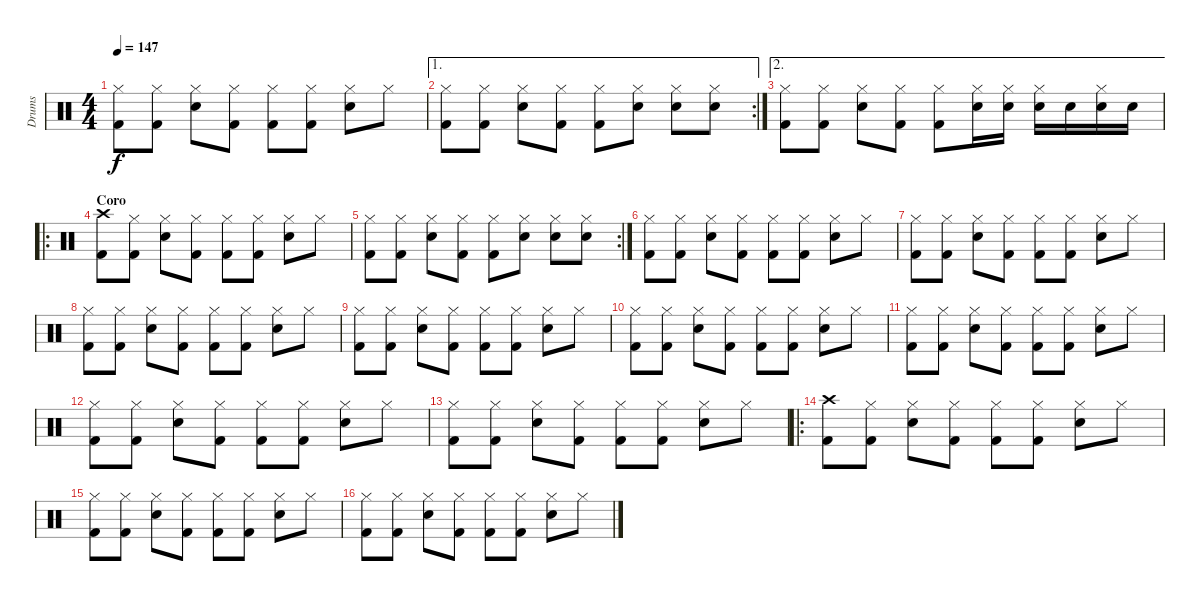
\track ("Drums" "Drums") {instrument percussion}
\staff {score}
\articulation defaults
\ts (4 4)
\tempo 147
\clef neutral
\ks c
("Hi-Hat (closed)" "Kick (hit) 2").8{dy f} ("Hi-Hat (closed)" "Kick (hit) 2").8 ("Hi-Hat (closed)" "Snare (hit) 2").8 ("Hi-Hat (closed)" "Kick (hit) 2").8 ("Hi-Hat (closed)" "Kick (hit) 2").8 ("Hi-Hat (closed)" "Kick (hit) 2").8 ("Hi-Hat (closed)" "Snare (hit) 2").8 "Hi-Hat (closed)".8 |
\ae 1
\rc 2
("Hi-Hat (closed)" "Kick (hit) 2").8 ("Hi-Hat (closed)" "Kick (hit) 2").8 ("Hi-Hat (closed)" "Snare (hit) 2").8 ("Hi-Hat (closed)" "Kick (hit) 2").8 ("Hi-Hat (closed)" "Kick (hit) 2").8 ("Hi-Hat (closed)" "Snare (hit) 2").8 ("Hi-Hat (closed)" "Snare (hit) 2").8 ("Hi-Hat (closed)" "Snare (hit) 2").8 |
\ae 2
("Hi-Hat (closed)" "Kick (hit) 2").8 ("Hi-Hat (closed)" "Kick (hit) 2").8 ("Hi-Hat (closed)" "Snare (hit) 2").8 ("Hi-Hat (closed)" "Kick (hit) 2").8 ("Hi-Hat (closed)" "Kick (hit) 2").8 ("Hi-Hat (closed)" "Snare (hit) 2").16 ("Hi-Hat (closed)" "Snare (hit) 2").16 ("Hi-Hat (closed)" "Snare (hit) 2").16 "Snare (hit) 2".16 ("Hi-Hat (closed)" "Snare (hit) 2").16 "Snare (hit) 2".16 |
\ro
\section ("" "Coro")
("Crash high (hit)" "Kick (hit) 2").8 ("Hi-Hat (closed)" "Kick (hit) 2").8 ("Hi-Hat (closed)" "Snare (hit) 2").8 ("Hi-Hat (closed)" "Kick (hit) 2").8 ("Hi-Hat (closed)" "Kick (hit) 2").8 ("Hi-Hat (closed)" "Kick (hit) 2").8 ("Hi-Hat (closed)" "Snare (hit) 2").8 "Hi-Hat (closed)".8 |
\rc 2
("Hi-Hat (closed)" "Kick (hit) 2").8 ("Hi-Hat (closed)" "Kick (hit) 2").8 ("Hi-Hat (closed)" "Snare (hit) 2").8 ("Hi-Hat (closed)" "Kick (hit) 2").8 ("Hi-Hat (closed)" "Kick (hit) 2").8 ("Hi-Hat (closed)" "Snare (hit) 2").8 ("Hi-Hat (closed)" "Snare (hit) 2").8 ("Hi-Hat (closed)" "Snare (hit) 2").8 |
("Hi-Hat (closed)" "Kick (hit) 2").8 ("Hi-Hat (closed)" "Kick (hit) 2").8 ("Hi-Hat (closed)" "Snare (hit) 2").8 ("Hi-Hat (closed)" "Kick (hit) 2").8 ("Hi-Hat (closed)" "Kick (hit) 2").8 ("Hi-Hat (closed)" "Kick (hit) 2").8 ("Hi-Hat (closed)" "Snare (hit) 2").8 "Hi-Hat (closed)".8 |
("Hi-Hat (closed)" "Kick (hit) 2").8 ("Hi-Hat (closed)" "Kick (hit) 2").8 ("Hi-Hat (closed)" "Snare (hit) 2").8 ("Hi-Hat (closed)" "Kick (hit) 2").8 ("Hi-Hat (closed)" "Kick (hit) 2").8 ("Hi-Hat (closed)" "Kick (hit) 2").8 ("Hi-Hat (closed)" "Snare (hit) 2").8 "Hi-Hat (closed)".8 |
("Hi-Hat (closed)" "Kick (hit) 2").8 ("Hi-Hat (closed)" "Kick (hit) 2").8 ("Hi-Hat (closed)" "Snare (hit) 2").8 ("Hi-Hat (closed)" "Kick (hit) 2").8 ("Hi-Hat (closed)" "Kick (hit) 2").8 ("Hi-Hat (closed)" "Kick (hit) 2").8 ("Hi-Hat (closed)" "Snare (hit) 2").8 "Hi-Hat (closed)".8 |
("Hi-Hat (closed)" "Kick (hit) 2").8 ("Hi-Hat (closed)" "Kick (hit) 2").8 ("Hi-Hat (closed)" "Snare (hit) 2").8 ("Hi-Hat (closed)" "Kick (hit) 2").8 ("Hi-Hat (closed)" "Kick (hit) 2").8 ("Hi-Hat (closed)" "Kick (hit) 2").8 ("Hi-Hat (closed)" "Snare (hit) 2").8 "Hi-Hat (closed)".8 |
("Hi-Hat (closed)" "Kick (hit) 2").8 ("Hi-Hat (closed)" "Kick (hit) 2").8 ("Hi-Hat (closed)" "Snare (hit) 2").8 ("Hi-Hat (closed)" "Kick (hit) 2").8 ("Hi-Hat (closed)" "Kick (hit) 2").8 ("Hi-Hat (closed)" "Kick (hit) 2").8 ("Hi-Hat (closed)" "Snare (hit) 2").8 "Hi-Hat (closed)".8 |
("Hi-Hat (closed)" "Kick (hit) 2").8 ("Hi-Hat (closed)" "Kick (hit) 2").8 ("Hi-Hat (closed)" "Snare (hit) 2").8 ("Hi-Hat (closed)" "Kick (hit) 2").8 ("Hi-Hat (closed)" "Kick (hit) 2").8 ("Hi-Hat (closed)" "Kick (hit) 2").8 ("Hi-Hat (closed)" "Snare (hit) 2").8 "Hi-Hat (closed)".8 |
("Hi-Hat (closed)" "Kick (hit) 2").8 ("Hi-Hat (closed)" "Kick (hit) 2").8 ("Hi-Hat (closed)" "Snare (hit) 2").8 ("Hi-Hat (closed)" "Kick (hit) 2").8 ("Hi-Hat (closed)" "Kick (hit) 2").8 ("Hi-Hat (closed)" "Kick (hit) 2").8 ("Hi-Hat (closed)" "Snare (hit) 2").8 "Hi-Hat (closed)".8 |
("Hi-Hat (closed)" "Kick (hit) 2").8 ("Hi-Hat (closed)" "Kick (hit) 2").8 ("Hi-Hat (closed)" "Snare (hit) 2").8 ("Hi-Hat (closed)" "Kick (hit) 2").8 ("Hi-Hat (closed)" "Kick (hit) 2").8 ("Hi-Hat (closed)" "Kick (hit) 2").8 ("Hi-Hat (closed)" "Snare (hit) 2").8 "Hi-Hat (closed)".8 |
\ro
("Crash high (hit)" "Kick (hit) 2").8 ("Hi-Hat (closed)" "Kick (hit) 2").8 ("Hi-Hat (closed)" "Snare (hit) 2").8 ("Hi-Hat (closed)" "Kick (hit) 2").8 ("Hi-Hat (closed)" "Kick (hit) 2").8 ("Hi-Hat (closed)" "Kick (hit) 2").8 ("Hi-Hat (closed)" "Snare (hit) 2").8 "Hi-Hat (closed)".8 |
("Hi-Hat (closed)" "Kick (hit) 2").8 ("Hi-Hat (closed)" "Kick (hit) 2").8 ("Hi-Hat (closed)" "Snare (hit) 2").8 ("Hi-Hat (closed)" "Kick (hit) 2").8 ("Hi-Hat (closed)" "Kick (hit) 2").8 ("Hi-Hat (closed)" "Kick (hit) 2").8 ("Hi-Hat (closed)" "Snare (hit) 2").8 "Hi-Hat (closed)".8 |
("Hi-Hat (closed)" "Kick (hit) 2").8 ("Hi-Hat (closed)" "Kick (hit) 2").8 ("Hi-Hat (closed)" "Snare (hit) 2").8 ("Hi-Hat (closed)" "Kick (hit) 2").8 ("Hi-Hat (closed)" "Kick (hit) 2").8 ("Hi-Hat (closed)" "Kick (hit) 2").8 ("Hi-Hat (closed)" "Snare (hit) 2").8 "Hi-Hat (closed)".8
